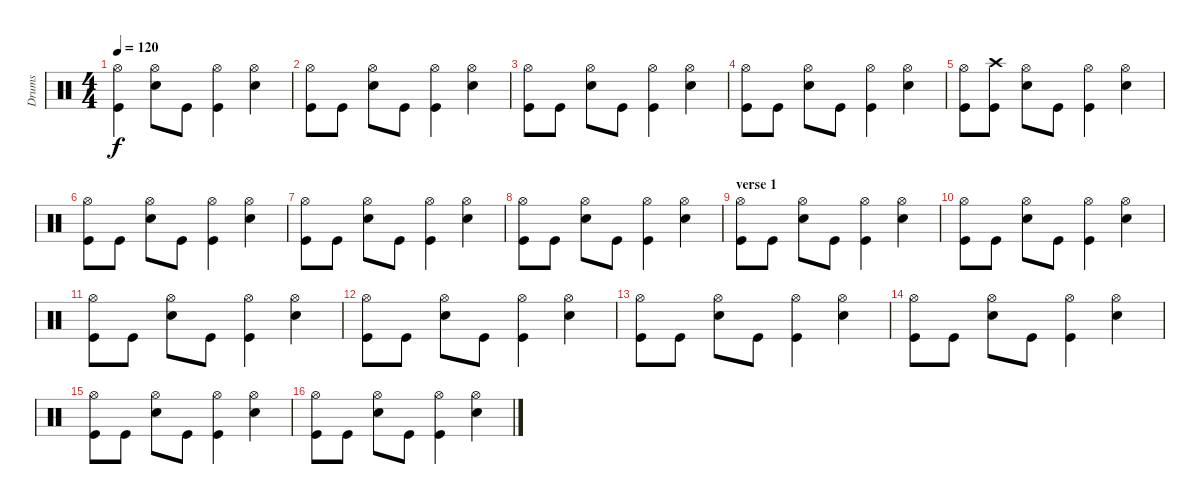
\track ("Drums" "Drums") {instrument percussion}
\staff {score}
\articulation defaults
\ts (4 4)
\tempo 120
\clef neutral
\ks c
("Hi-Hat (open)" "Kick (hit)").4{dy f} ("Hi-Hat (open)" "Electric Snare (hit)").8 "Kick (hit)".8 ("Hi-Hat (open)" "Kick (hit)").4 ("Hi-Hat (open)" "Electric Snare (hit)").4 |
("Hi-Hat (open)" "Kick (hit)").8 "Kick (hit)".8 ("Hi-Hat (open)" "Electric Snare (hit)").8 "Kick (hit)".8 ("Hi-Hat (open)" "Kick (hit)").4 ("Hi-Hat (open)" "Electric Snare (hit)").4 |
("Hi-Hat (open)" "Kick (hit)").8 "Kick (hit)".8 ("Hi-Hat (open)" "Electric Snare (hit)").8 "Kick (hit)".8 ("Hi-Hat (open)" "Kick (hit)").4 ("Hi-Hat (open)" "Electric Snare (hit)").4 |
("Hi-Hat (open)" "Kick (hit)").8 "Kick (hit)".8 ("Hi-Hat (open)" "Electric Snare (hit)").8 "Kick (hit)".8 ("Hi-Hat (open)" "Kick (hit)").4 ("Hi-Hat (open)" "Electric Snare (hit)").4 |
("Hi-Hat (open)" "Kick (hit)").8 ("Crash high (hit)" "Kick (hit)").8 ("Hi-Hat (open)" "Electric Snare (hit)").8 "Kick (hit)".8 ("Hi-Hat (open)" "Kick (hit)").4 ("Hi-Hat (open)" "Electric Snare (hit)").4 |
("Hi-Hat (open)" "Kick (hit)").8 "Kick (hit)".8 ("Hi-Hat (open)" "Electric Snare (hit)").8 "Kick (hit)".8 ("Hi-Hat (open)" "Kick (hit)").4 ("Hi-Hat (open)" "Electric Snare (hit)").4 |
("Hi-Hat (open)" "Kick (hit)").8 "Kick (hit)".8 ("Hi-Hat (open)" "Electric Snare (hit)").8 "Kick (hit)".8 ("Hi-Hat (open)" "Kick (hit)").4 ("Hi-Hat (open)" "Electric Snare (hit)").4 |
("Hi-Hat (open)" "Kick (hit)").8 "Kick (hit)".8 ("Hi-Hat (open)" "Electric Snare (hit)").8 "Kick (hit)".8 ("Hi-Hat (open)" "Kick (hit)").4 ("Hi-Hat (open)" "Electric Snare (hit)").4 |
\section ("" "verse 1")
("Hi-Hat (open)" "Kick (hit)").8 "Kick (hit)".8 ("Hi-Hat (open)" "Electric Snare (hit)").8 "Kick (hit)".8 ("Hi-Hat (open)" "Kick (hit)").4 ("Hi-Hat (open)" "Electric Snare (hit)").4 |
("Hi-Hat (open)" "Kick (hit)").8 "Kick (hit)".8 ("Hi-Hat (open)" "Electric Snare (hit)").8 "Kick (hit)".8 ("Hi-Hat (open)" "Kick (hit)").4 ("Hi-Hat (open)" "Electric Snare (hit)").4 |
("Hi-Hat (open)" "Kick (hit)").8 "Kick (hit)".8 ("Hi-Hat (open)" "Electric Snare (hit)").8 "Kick (hit)".8 ("Hi-Hat (open)" "Kick (hit)").4 ("Hi-Hat (open)" "Electric Snare (hit)").4 |
("Hi-Hat (open)" "Kick (hit)").8 "Kick (hit)".8 ("Hi-Hat (open)" "Electric Snare (hit)").8 "Kick (hit)".8 ("Hi-Hat (open)" "Kick (hit)").4 ("Hi-Hat (open)" "Electric Snare (hit)").4 |
("Hi-Hat (open)" "Kick (hit)").8 "Kick (hit)".8 ("Hi-Hat (open)" "Electric Snare (hit)").8 "Kick (hit)".8 ("Hi-Hat (open)" "Kick (hit)").4 ("Hi-Hat (open)" "Electric Snare (hit)").4 |
("Hi-Hat (open)" "Kick (hit)").8 "Kick (hit)".8 ("Hi-Hat (open)" "Electric Snare (hit)").8 "Kick (hit)".8 ("Hi-Hat (open)" "Kick (hit)").4 ("Hi-Hat (open)" "Electric Snare (hit)").4 |
("Hi-Hat (open)" "Kick (hit)").8 "Kick (hit)".8 ("Hi-Hat (open)" "Electric Snare (hit)").8 "Kick (hit)".8 ("Hi-Hat (open)" "Kick (hit)").4 ("Hi-Hat (open)" "Electric Snare (hit)").4 |
("Hi-Hat (open)" "Kick (hit)").8 "Kick (hit)".8 ("Hi-Hat (open)" "Electric Snare (hit)").8 "Kick (hit)".8 ("Hi-Hat (open)" "Kick (hit)").4 ("Hi-Hat (open)" "Electric Snare (hit)").4
